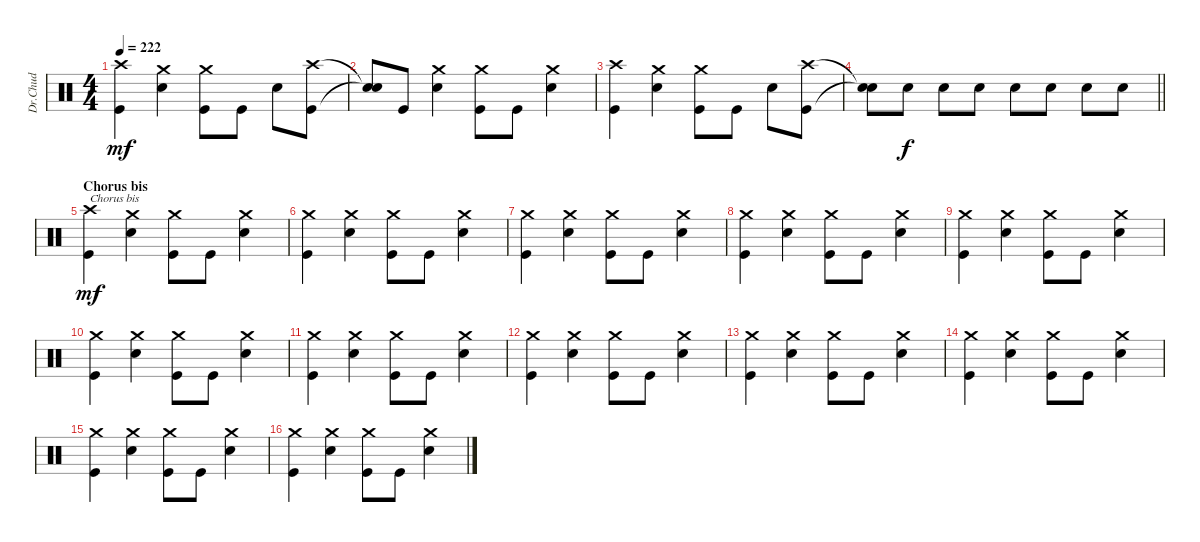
\track ("Dr.Chud" "Dr.Chud") {instrument percussion}
\staff {score}
\articulation defaults
\ts (4 4)
\tempo 222
\clef neutral
\ks c
("Crash high (hit)" "Kick (hit)").4{dy mf} ("Crash medium (hit)" "Electric Snare (hit)").4 ("Crash medium (hit)" "Kick (hit)").8 "Kick (hit)".8 "Electric Snare (hit)".8 ("Crash high (hit)" "Kick (hit)").8 |
("Snare (hit)"{t} "Snare (hit)"{t}).8 "Kick (hit)".8 ("Crash medium (hit)" "Electric Snare (hit)").4 ("Crash medium (hit)" "Kick (hit)").8 "Kick (hit)".8 ("Crash medium (hit)" "Electric Snare (hit)").4 |
("Crash high (hit)" "Kick (hit)").4 ("Crash medium (hit)" "Electric Snare (hit)").4 ("Crash medium (hit)" "Kick (hit)").8 "Kick (hit)".8 "Electric Snare (hit)".8 ("Crash high (hit)" "Kick (hit)").8 |
\barLineRight lightlight
("Snare (hit)"{t} "Snare (hit)"{t}).8 "Electric Snare (hit)".8{dy f} "Electric Snare (hit)".8 "Electric Snare (hit)".8 "Electric Snare (hit)".8 "Electric Snare (hit)".8 "Electric Snare (hit)".8 "Electric Snare (hit)".8 |
\section ("" "Chorus bis")
("Crash high (hit)" "Kick (hit)").4{txt "Chorus bis" dy mf} ("Crash medium (hit)" "Electric Snare (hit)").4 ("Crash medium (hit)" "Kick (hit)").8 "Kick (hit)".8 ("Crash medium (hit)" "Electric Snare (hit)").4 |
("Crash medium (hit)" "Kick (hit)").4 ("Crash medium (hit)" "Electric Snare (hit)").4 ("Crash medium (hit)" "Kick (hit)").8 "Kick (hit)".8 ("Crash medium (hit)" "Electric Snare (hit)").4 |
("Crash medium (hit)" "Kick (hit)").4 ("Crash medium (hit)" "Electric Snare (hit)").4 ("Crash medium (hit)" "Kick (hit)").8 "Kick (hit)".8 ("Crash medium (hit)" "Electric Snare (hit)").4 |
("Crash medium (hit)" "Kick (hit)").4 ("Crash medium (hit)" "Electric Snare (hit)").4 ("Crash medium (hit)" "Kick (hit)").8 "Kick (hit)".8 ("Crash medium (hit)" "Electric Snare (hit)").4 |
("Crash medium (hit)" "Kick (hit)").4 ("Crash medium (hit)" "Electric Snare (hit)").4 ("Crash medium (hit)" "Kick (hit)").8 "Kick (hit)".8 ("Crash medium (hit)" "Electric Snare (hit)").4 |
("Crash medium (hit)" "Kick (hit)").4 ("Crash medium (hit)" "Electric Snare (hit)").4 ("Crash medium (hit)" "Kick (hit)").8 "Kick (hit)".8 ("Crash medium (hit)" "Electric Snare (hit)").4 |
("Crash medium (hit)" "Kick (hit)").4 ("Crash medium (hit)" "Electric Snare (hit)").4 ("Crash medium (hit)" "Kick (hit)").8 "Kick (hit)".8 ("Crash medium (hit)" "Electric Snare (hit)").4 |
("Crash medium (hit)" "Kick (hit)").4 ("Crash medium (hit)" "Electric Snare (hit)").4 ("Crash medium (hit)" "Kick (hit)").8 "Kick (hit)".8 ("Crash medium (hit)" "Electric Snare (hit)").4 |
("Crash medium (hit)" "Kick (hit)").4 ("Crash medium (hit)" "Electric Snare (hit)").4 ("Crash medium (hit)" "Kick (hit)").8 "Kick (hit)".8 ("Crash medium (hit)" "Electric Snare (hit)").4 |
("Crash medium (hit)" "Kick (hit)").4 ("Crash medium (hit)" "Electric Snare (hit)").4 ("Crash medium (hit)" "Kick (hit)").8 "Kick (hit)".8 ("Crash medium (hit)" "Electric Snare (hit)").4 |
("Crash medium (hit)" "Kick (hit)").4 ("Crash medium (hit)" "Electric Snare (hit)").4 ("Crash medium (hit)" "Kick (hit)").8 "Kick (hit)".8 ("Crash medium (hit)" "Electric Snare (hit)").4 |
("Crash medium (hit)" "Kick (hit)").4 ("Crash medium (hit)" "Electric Snare (hit)").4 ("Crash medium (hit)" "Kick (hit)").8 "Kick (hit)".8 ("Crash medium (hit)" "Electric Snare (hit)").4
